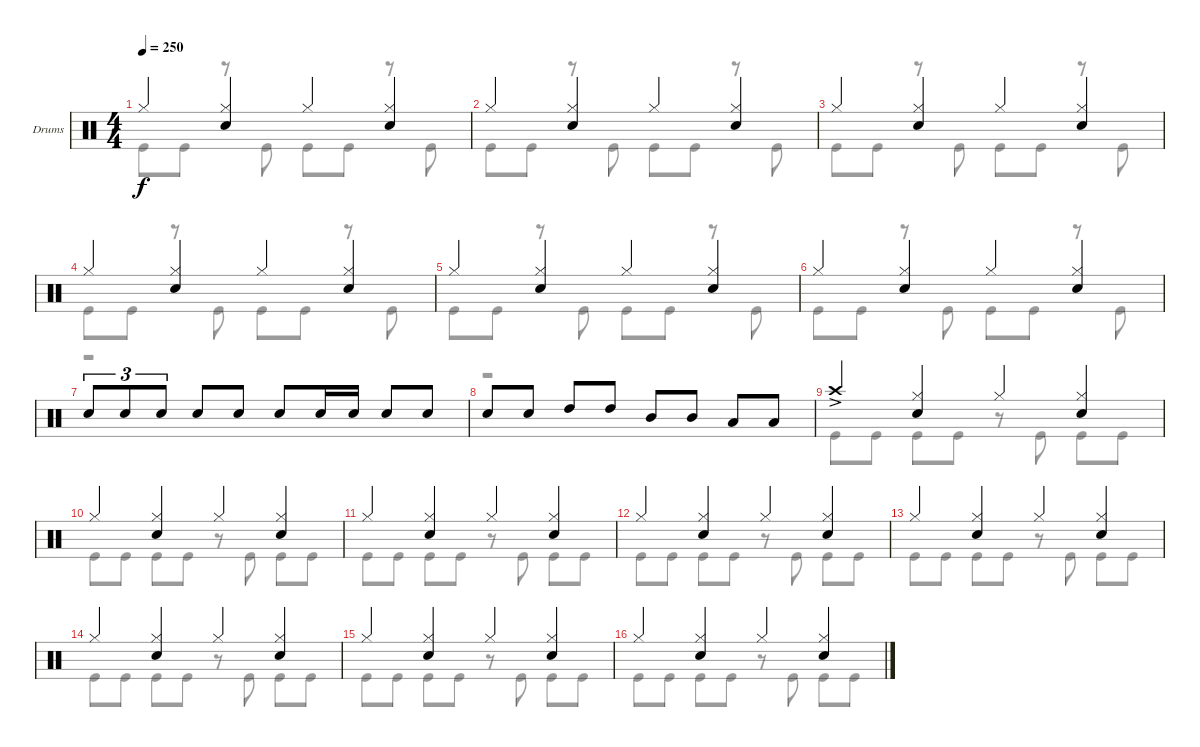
\bracketExtendMode groupsimilarinstruments
\firstSystemTrackNameOrientation horizontal
\otherSystemsTrackNameOrientation horizontal
\track ("Drumkit" "Drums") {instrument percussion}
\staff {score}
\articulation defaults
\voice
\ts (4 4)
\tempo 250
\clef neutral
\ks c "Hi-Hat (closed)".4{dy f}
("Hi-Hat (closed)" "Snare (hit) 2").4 "Hi-Hat (closed)".4 ("Hi-Hat (closed)" "Snare (hit) 2").4 |
"Hi-Hat (closed)".4 ("Hi-Hat (closed)" "Snare (hit) 2").4 "Hi-Hat (closed)".4 ("Hi-Hat (closed)" "Snare (hit) 2").4 |
"Hi-Hat (closed)".4 ("Hi-Hat (closed)" "Snare (hit) 2").4 "Hi-Hat (closed)".4 ("Hi-Hat (closed)" "Snare (hit) 2").4 |
"Hi-Hat (closed)".4 ("Hi-Hat (closed)" "Snare (hit) 2").4 "Hi-Hat (closed)".4 ("Hi-Hat (closed)" "Snare (hit) 2").4 |
"Hi-Hat (closed)".4 ("Hi-Hat (closed)" "Snare (hit) 2").4 "Hi-Hat (closed)".4 ("Hi-Hat (closed)" "Snare (hit) 2").4 |
"Hi-Hat (closed)".4 ("Hi-Hat (closed)" "Snare (hit) 2").4 "Hi-Hat (closed)".4 ("Hi-Hat (closed)" "Snare (hit) 2").4 |
"Snare (hit) 2".8{tu (3 2)} "Snare (hit) 2".8{tu (3 2)} "Snare (hit) 2".8{tu (3 2)} "Snare (hit) 2".8 "Snare (hit) 2".8 "Snare (hit) 2".8 "Snare (hit) 2".16 "Snare (hit) 2".16 "Snare (hit) 2".8 "Snare (hit) 2".8 |
"Snare (hit) 2".8 "Snare (hit) 2".8 "High Tom (hit)".8 "High Tom (hit)".8 "Mid Tom (hit)".8 "Mid Tom (hit)".8 "Low Tom (hit)".8 "Low Tom (hit)".8 |
"Crash high (hit)"{ac}.4 ("Hi-Hat (closed)" "Snare (hit) 2").4 "Hi-Hat (closed)".4 ("Hi-Hat (closed)" "Snare (hit) 2").4 |
"Hi-Hat (closed)".4 ("Hi-Hat (closed)" "Snare (hit) 2").4 "Hi-Hat (closed)".4 ("Hi-Hat (closed)" "Snare (hit) 2").4 |
"Hi-Hat (closed)".4 ("Hi-Hat (closed)" "Snare (hit) 2").4 "Hi-Hat (closed)".4 ("Hi-Hat (closed)" "Snare (hit) 2").4 |
"Hi-Hat (closed)".4 ("Hi-Hat (closed)" "Snare (hit) 2").4 "Hi-Hat (closed)".4 ("Hi-Hat (closed)" "Snare (hit) 2").4 |
"Hi-Hat (closed)".4 ("Hi-Hat (closed)" "Snare (hit) 2").4 "Hi-Hat (closed)".4 ("Hi-Hat (closed)" "Snare (hit) 2").4 |
"Hi-Hat (closed)".4 ("Hi-Hat (closed)" "Snare (hit) 2").4 "Hi-Hat (closed)".4 ("Hi-Hat (closed)" "Snare (hit) 2").4 |
"Hi-Hat (closed)".4 ("Hi-Hat (closed)" "Snare (hit) 2").4 "Hi-Hat (closed)".4 ("Hi-Hat (closed)" "Snare (hit) 2").4 |
"Hi-Hat (closed)".4 ("Hi-Hat (closed)" "Snare (hit) 2").4 "Hi-Hat (closed)".4 ("Hi-Hat (closed)" "Snare (hit) 2").4
\voice
\clef neutral
\ottava regular
\simile none
\ks c "Kick (hit)".8{dy f} "Kick (hit)".8
r.8 "Kick (hit)".8 "Kick (hit)".8 "Kick (hit)".8 r.8 "Kick (hit)".8 |
"Kick (hit)".8 "Kick (hit)".8 r.8 "Kick (hit)".8 "Kick (hit)".8 "Kick (hit)".8 r.8 "Kick (hit)".8 |
"Kick (hit)".8 "Kick (hit)".8 r.8 "Kick (hit)".8 "Kick (hit)".8 "Kick (hit)".8 r.8 "Kick (hit)".8 |
"Kick (hit)".8 "Kick (hit)".8 r.8 "Kick (hit)".8 "Kick (hit)".8 "Kick (hit)".8 r.8 "Kick (hit)".8 |
"Kick (hit)".8 "Kick (hit)".8 r.8 "Kick (hit)".8 "Kick (hit)".8 "Kick (hit)".8 r.8 "Kick (hit)".8 |
"Kick (hit)".8 "Kick (hit)".8 r.8 "Kick (hit)".8 "Kick (hit)".8 "Kick (hit)".8 r.8 "Kick (hit)".8 |
r.1 |
r.1 |
"Kick (hit)".8 "Kick (hit)".8 "Kick (hit)".8 "Kick (hit)".8 r.8 "Kick (hit)".8 "Kick (hit)".8 "Kick (hit)".8 |
"Kick (hit)".8 "Kick (hit)".8 "Kick (hit)".8 "Kick (hit)".8 r.8 "Kick (hit)".8 "Kick (hit)".8 "Kick (hit)".8 |
"Kick (hit)".8 "Kick (hit)".8 "Kick (hit)".8 "Kick (hit)".8 r.8 "Kick (hit)".8 "Kick (hit)".8 "Kick (hit)".8 |
"Kick (hit)".8 "Kick (hit)".8 "Kick (hit)".8 "Kick (hit)".8 r.8 "Kick (hit)".8 "Kick (hit)".8 "Kick (hit)".8 |
"Kick (hit)".8 "Kick (hit)".8 "Kick (hit)".8 "Kick (hit)".8 r.8 "Kick (hit)".8 "Kick (hit)".8 "Kick (hit)".8 |
"Kick (hit)".8 "Kick (hit)".8 "Kick (hit)".8 "Kick (hit)".8 r.8 "Kick (hit)".8 "Kick (hit)".8 "Kick (hit)".8 |
"Kick (hit)".8 "Kick (hit)".8 "Kick (hit)".8 "Kick (hit)".8 r.8 "Kick (hit)".8 "Kick (hit)".8 "Kick (hit)".8 |
"Kick (hit)".8 "Kick (hit)".8 "Kick (hit)".8 "Kick (hit)".8 r.8 "Kick (hit)".8 "Kick (hit)".8 "Kick (hit)".8
